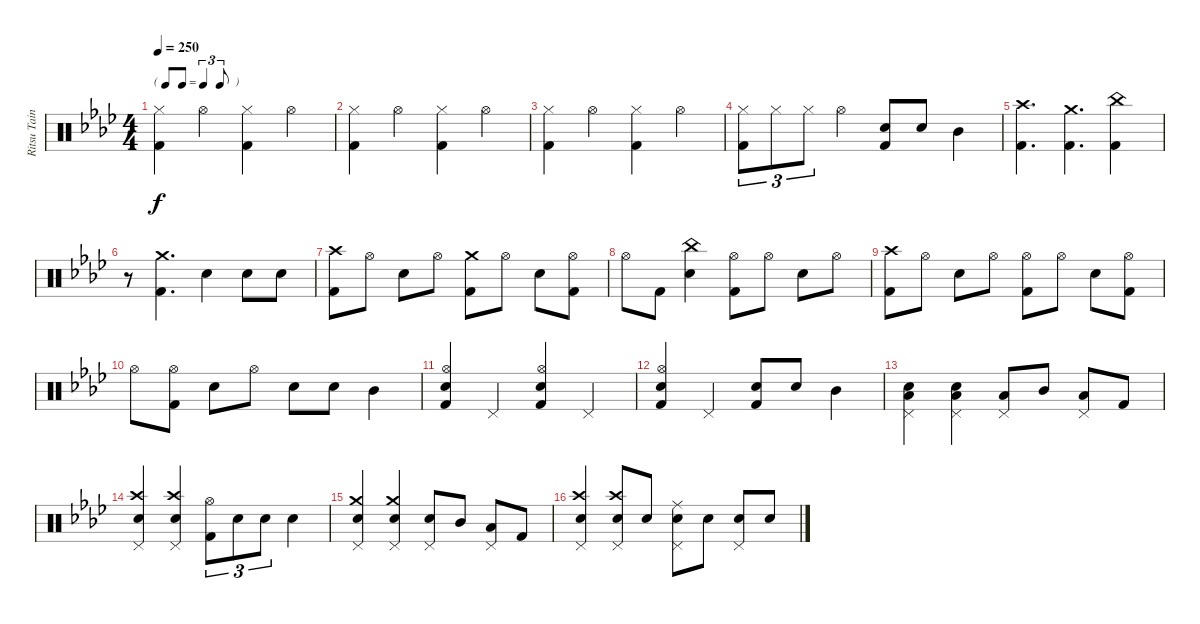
\track ("Ritsu Tainaka" "Ritsu Tain") {instrument percussion}
\staff {score}
\articulation defaults
\ts (4 4)
\tf triplet8th
\tempo 250
\clef neutral
\ks ab
("Hi-Hat (closed)" "Kick (hit) 2").4{dy f} "Hi-Hat (open)".4 ("Hi-Hat (closed)" "Kick (hit) 2").4 "Hi-Hat (open)".4 |
("Hi-Hat (closed)" "Kick (hit) 2").4 "Hi-Hat (open)".4 ("Hi-Hat (closed)" "Kick (hit) 2").4 "Hi-Hat (open)".4 |
("Hi-Hat (closed)" "Kick (hit) 2").4 "Hi-Hat (open)".4 ("Hi-Hat (closed)" "Kick (hit) 2").4 "Hi-Hat (open)".4 |
("Hi-Hat (closed)" "Kick (hit) 2").8{tu (3 2)} "Hi-Hat (closed)".8{tu (3 2)} "Hi-Hat (closed)".8{tu (3 2)} "Hi-Hat (open)".4 ("Electric Snare (hit)" "Kick (hit) 2").8 "Electric Snare (hit)".8 "Mid Tom (hit)".4 |
("Crash high (hit)" "Kick (hit) 2").4{d} ("Crash medium (hit)" "Kick (hit) 2").4{d} ("China (hit)" "Kick (hit) 2").4 |
r.8 ("Crash medium (hit)" "Kick (hit) 2").4{d} "Electric Snare (hit)".4 "Electric Snare (hit)".8 "Electric Snare (hit)".8 |
("Crash high (hit)" "Kick (hit) 2").8 "Hi-Hat (open)".8 "Electric Snare (hit)".8 "Hi-Hat (open)".8 ("Crash medium (hit)" "Kick (hit) 2").8 "Hi-Hat (open)".8 "Electric Snare (hit)".8 ("Hi-Hat (open)" "Kick (hit) 2").8 |
"Hi-Hat (open)".8 "Kick (hit) 2".8 ("China (hit)" "Electric Snare (hit)").4 ("Hi-Hat (open)" "Kick (hit) 2").8 "Hi-Hat (open)".8 "Electric Snare (hit)".8 "Hi-Hat (open)".8 |
("Crash high (hit)" "Kick (hit) 2").8 "Hi-Hat (open)".8 "Electric Snare (hit)".8 "Hi-Hat (open)".8 ("Hi-Hat (open)" "Kick (hit) 2").8 "Hi-Hat (open)".8 "Electric Snare (hit)".8 ("Hi-Hat (open)" "Kick (hit) 2").8 |
"Hi-Hat (open)".8 ("Hi-Hat (open)" "Kick (hit) 2").8 "Electric Snare (hit)".8 "Hi-Hat (open)".8 "Electric Snare (hit)".8 "Electric Snare (hit)".8 "Mid Tom (hit)".4 |
("Hi-Hat (open)" "Electric Snare (hit)" "Kick (hit) 2").4 "Pedal Hi-Hat (hit)".4 ("Hi-Hat (open)" "Electric Snare (hit)" "Kick (hit) 2").4 "Pedal Hi-Hat (hit)".4 |
("Hi-Hat (open)" "Electric Snare (hit)" "Kick (hit) 2").4 "Pedal Hi-Hat (hit)".4 ("Electric Snare (hit)" "Kick (hit) 2").8 "Electric Snare (hit)".8 "Mid Tom (hit)".4 |
("Pedal Hi-Hat (hit)" "Electric Snare (hit)" "Low Floor Tom (hit)").4 ("Pedal Hi-Hat (hit)" "Electric Snare (hit)" "Low Floor Tom (hit)").4 ("Pedal Hi-Hat (hit)" "Low Floor Tom (hit)").8 "Mid Tom (hit)".8 ("Pedal Hi-Hat (hit)" "Low Floor Tom (hit)").8 "Kick (hit) 2".8 |
("Crash high (hit)" "Pedal Hi-Hat (hit)" "Electric Snare (hit)").4 ("Crash high (hit)" "Pedal Hi-Hat (hit)" "Electric Snare (hit)").4 ("Hi-Hat (open)" "Kick (hit) 2").8{tu (3 2)} "Electric Snare (hit)".8{tu (3 2)} "Electric Snare (hit)".8{tu (3 2)} "Electric Snare (hit)".4 |
("Crash medium (hit)" "Pedal Hi-Hat (hit)" "Electric Snare (hit)").4 ("Crash medium (hit)" "Pedal Hi-Hat (hit)" "Electric Snare (hit)").4 ("Pedal Hi-Hat (hit)" "Electric Snare (hit)").8 "Mid Tom (hit)".8 ("Pedal Hi-Hat (hit)" "Low Floor Tom (hit)").8 "Kick (hit) 2".8 |
("Crash high (hit)" "Pedal Hi-Hat (hit)" "Electric Snare (hit)").4 ("Crash high (hit)" "Pedal Hi-Hat (hit)" "Electric Snare (hit)").8 "Electric Snare (hit)".8 ("Ride (middle)" "Pedal Hi-Hat (hit)" "Electric Snare (hit)").8 "Electric Snare (hit)".8 ("Pedal Hi-Hat (hit)" "Electric Snare (hit)").8 "Electric Snare (hit)".8
